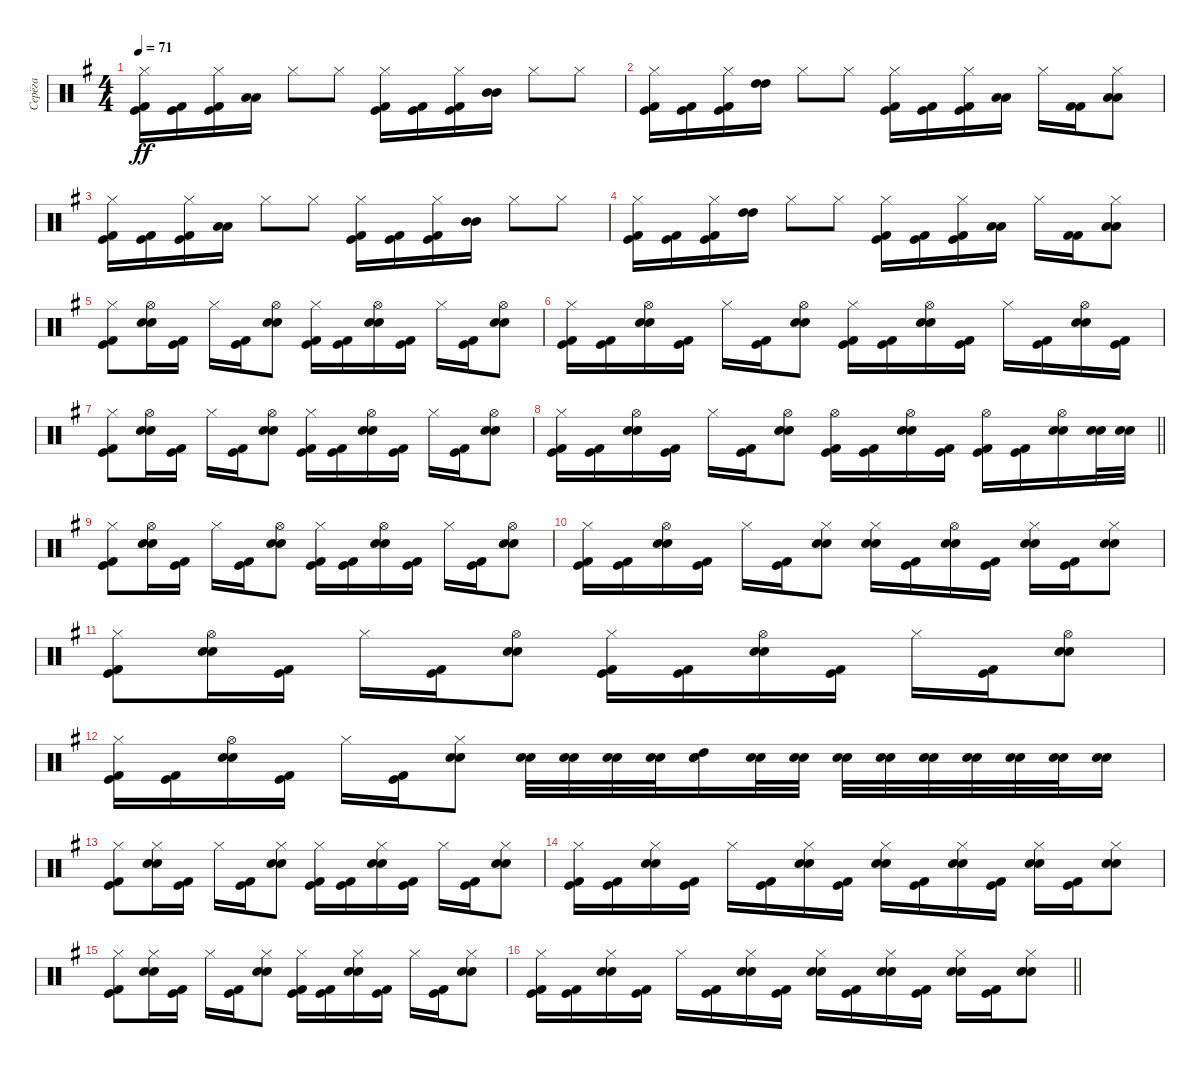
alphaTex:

\track ("Серёга" "Серёга") {instrument percussion}
\staff {score}
\articulation defaults
\ts (4 4)
\tempo 71
\clef neutral
\ks eminor
("Hi-Hat (closed)" "Kick (hit)" "Kick (hit) 2").16{dy ff} ("Kick (hit)" "Kick (hit) 2").16 ("Hi-Hat (closed)" "Kick (hit)" "Kick (hit) 2").16 ("Low Tom (hit)" "Low Tom (hit)").16 "Hi-Hat (closed)".8 "Hi-Hat (closed)".8 ("Hi-Hat (closed)" "Kick (hit) 2" "Kick (hit)").16 ("Kick (hit) 2" "Kick (hit)").16 ("Hi-Hat (closed)" "Kick (hit) 2" "Kick (hit)").16 ("Mid Tom (hit)" "Mid Tom (hit)").16 "Hi-Hat (closed)".8 "Hi-Hat (closed)".8 |
("Hi-Hat (closed)" "Kick (hit) 2" "Kick (hit)").16 ("Kick (hit) 2" "Kick (hit)").16 ("Hi-Hat (closed)" "Kick (hit) 2" "Kick (hit)").16 ("High Tom (hit)" "High Tom (hit)").16 "Hi-Hat (closed)".8 "Hi-Hat (closed)".8 ("Hi-Hat (closed)" "Kick (hit) 2" "Kick (hit)").16 ("Kick (hit) 2" "Kick (hit)").16 ("Hi-Hat (closed)" "Kick (hit) 2" "Kick (hit)").16 ("Low Tom (hit)" "Low Tom (hit)").16 "Hi-Hat (closed)".16 ("Kick (hit) 2" "Kick (hit) 2").16 ("Hi-Hat (closed)" "Low Tom (hit)" "Low Tom (hit)").8 |
("Hi-Hat (closed)" "Kick (hit)" "Kick (hit) 2").16 ("Kick (hit)" "Kick (hit) 2").16 ("Hi-Hat (closed)" "Kick (hit)" "Kick (hit) 2").16 ("Low Tom (hit)" "Low Tom (hit)").16 "Hi-Hat (closed)".8 "Hi-Hat (closed)".8 ("Hi-Hat (closed)" "Kick (hit) 2" "Kick (hit)").16 ("Kick (hit) 2" "Kick (hit)").16 ("Hi-Hat (closed)" "Kick (hit) 2" "Kick (hit)").16 ("Mid Tom (hit)" "Mid Tom (hit)").16 "Hi-Hat (closed)".8 "Hi-Hat (closed)".8 |
("Hi-Hat (closed)" "Kick (hit) 2" "Kick (hit)").16 ("Kick (hit) 2" "Kick (hit)").16 ("Hi-Hat (closed)" "Kick (hit) 2" "Kick (hit)").16 ("High Tom (hit)" "High Tom (hit)").16 "Hi-Hat (closed)".8 "Hi-Hat (closed)".8 ("Hi-Hat (closed)" "Kick (hit) 2" "Kick (hit)").16 ("Kick (hit) 2" "Kick (hit)").16 ("Hi-Hat (closed)" "Kick (hit) 2" "Kick (hit)").16 ("Low Tom (hit)" "Low Tom (hit)").16 "Hi-Hat (closed)".16 ("Kick (hit) 2" "Kick (hit) 2").16 ("Hi-Hat (closed)" "Low Tom (hit)" "Low Tom (hit)").8 |
("Hi-Hat (closed)" "Kick (hit)" "Kick (hit) 2").8 ("Hi-Hat (open)" "Electric Snare (hit)" "Snare (hit) 2").16 ("Kick (hit)" "Kick (hit) 2").16 "Hi-Hat (closed)".16 ("Kick (hit)" "Kick (hit) 2").16 ("Hi-Hat (open)" "Snare (hit) 2" "Electric Snare (hit)").8 ("Hi-Hat (closed)" "Kick (hit)" "Kick (hit) 2").16 ("Kick (hit)" "Kick (hit) 2").16 ("Hi-Hat (open)" "Snare (hit) 2" "Electric Snare (hit)").16 ("Kick (hit)" "Kick (hit) 2").16 "Hi-Hat (closed)".16 ("Kick (hit)" "Kick (hit) 2").16 ("Hi-Hat (open)" "Snare (hit) 2" "Electric Snare (hit)").8 |
("Hi-Hat (closed)" "Kick (hit)" "Kick (hit) 2").16 ("Kick (hit)" "Kick (hit) 2").16 ("Hi-Hat (open)" "Snare (hit) 2" "Electric Snare (hit)").16 ("Kick (hit)" "Kick (hit) 2").16 "Hi-Hat (closed)".16 ("Kick (hit)" "Kick (hit) 2").16 ("Hi-Hat (open)" "Snare (hit) 2" "Electric Snare (hit)").8 ("Hi-Hat (closed)" "Kick (hit)" "Kick (hit) 2").16 ("Kick (hit)" "Kick (hit) 2").16 ("Hi-Hat (open)" "Snare (hit) 2" "Electric Snare (hit)").16 ("Kick (hit)" "Kick (hit) 2").16 "Hi-Hat (closed)".16 ("Kick (hit)" "Kick (hit) 2").16 ("Hi-Hat (open)" "Snare (hit) 2" "Electric Snare (hit)").16 ("Kick (hit)" "Kick (hit) 2").16 |
("Hi-Hat (closed)" "Kick (hit)" "Kick (hit) 2").8 ("Hi-Hat (open)" "Snare (hit) 2" "Electric Snare (hit)").16 ("Kick (hit)" "Kick (hit) 2").16 "Hi-Hat (closed)".16 ("Kick (hit)" "Kick (hit) 2").16 ("Hi-Hat (open)" "Snare (hit) 2" "Electric Snare (hit)").8 ("Hi-Hat (closed)" "Kick (hit)" "Kick (hit) 2").16 ("Kick (hit)" "Kick (hit) 2").16 ("Hi-Hat (open)" "Snare (hit) 2" "Electric Snare (hit)").16 ("Kick (hit)" "Kick (hit) 2").16 "Hi-Hat (closed)".16 ("Kick (hit)" "Kick (hit) 2").16 ("Hi-Hat (open)" "Snare (hit) 2" "Electric Snare (hit)").8 |
\barLineRight lightlight
("Hi-Hat (closed)" "Kick (hit)" "Kick (hit) 2").16 ("Kick (hit)" "Kick (hit) 2").16 ("Hi-Hat (open)" "Snare (hit) 2" "Electric Snare (hit)").16 ("Kick (hit)" "Kick (hit) 2").16 "Hi-Hat (closed)".16 ("Kick (hit)" "Kick (hit) 2").16 ("Hi-Hat (open)" "Snare (hit) 2" "Electric Snare (hit)").8 ("Hi-Hat (open)" "Kick (hit)" "Kick (hit) 2").16 ("Kick (hit)" "Kick (hit) 2").16 ("Hi-Hat (open)" "Snare (hit) 2" "Electric Snare (hit)").16 ("Kick (hit)" "Kick (hit) 2").16 ("Hi-Hat (open)" "Kick (hit)" "Kick (hit) 2").16 ("Kick (hit)" "Kick (hit) 2").16 ("Hi-Hat (open)" "Electric Snare (hit)" "Snare (hit) 2").16 ("Electric Snare (hit)" "Snare (hit) 2").32 ("Electric Snare (hit)" "Snare (hit) 2").32 |
("Hi-Hat (closed)" "Kick (hit)" "Kick (hit) 2").8 ("Hi-Hat (open)" "Snare (hit) 2" "Electric Snare (hit)").16 ("Kick (hit)" "Kick (hit) 2").16 "Hi-Hat (closed)".16 ("Kick (hit)" "Kick (hit) 2").16 ("Hi-Hat (open)" "Snare (hit) 2" "Electric Snare (hit)").8 ("Hi-Hat (closed)" "Kick (hit)" "Kick (hit) 2").16 ("Kick (hit)" "Kick (hit) 2").16 ("Hi-Hat (open)" "Snare (hit) 2" "Electric Snare (hit)").16 ("Kick (hit)" "Kick (hit) 2").16 "Hi-Hat (closed)".16 ("Kick (hit)" "Kick (hit) 2").16 ("Hi-Hat (open)" "Snare (hit) 2" "Electric Snare (hit)").8 |
("Hi-Hat (closed)" "Kick (hit)" "Kick (hit) 2").16 ("Kick (hit)" "Kick (hit) 2").16 ("Hi-Hat (open)" "Snare (hit) 2" "Electric Snare (hit)").16 ("Kick (hit)" "Kick (hit) 2").16 "Hi-Hat (closed)".16 ("Kick (hit)" "Kick (hit) 2").16 ("Hi-Hat (closed)" "Snare (hit) 2" "Electric Snare (hit)").8 ("Hi-Hat (closed)" "Snare (hit) 2" "Electric Snare (hit)").16 ("Kick (hit)" "Kick (hit) 2").16 ("Hi-Hat (open)" "Snare (hit) 2" "Electric Snare (hit)").16 ("Kick (hit)" "Kick (hit) 2").16 ("Hi-Hat (closed)" "Snare (hit) 2" "Electric Snare (hit)").16 ("Kick (hit)" "Kick (hit) 2").16 ("Hi-Hat (closed)" "Snare (hit) 2" "Electric Snare (hit)").8 |
("Hi-Hat (closed)" "Kick (hit)" "Kick (hit) 2").8 ("Hi-Hat (open)" "Electric Snare (hit)" "Snare (hit) 2").16 ("Kick (hit)" "Kick (hit) 2").16 "Hi-Hat (closed)".16 ("Kick (hit)" "Kick (hit) 2").16 ("Hi-Hat (open)" "Electric Snare (hit)" "Snare (hit) 2").8 ("Hi-Hat (closed)" "Kick (hit)" "Kick (hit) 2").16 ("Kick (hit)" "Kick (hit) 2").16 ("Hi-Hat (open)" "Electric Snare (hit)" "Snare (hit) 2").16 ("Kick (hit)" "Kick (hit) 2").16 "Hi-Hat (closed)".16 ("Kick (hit)" "Kick (hit) 2").16 ("Hi-Hat (open)" "Electric Snare (hit)" "Snare (hit) 2").8 |
("Hi-Hat (closed)" "Kick (hit)" "Kick (hit) 2").16 ("Kick (hit)" "Kick (hit) 2").16 ("Hi-Hat (open)" "Electric Snare (hit)" "Snare (hit) 2").16 ("Kick (hit)" "Kick (hit) 2").16 "Hi-Hat (closed)".16 ("Kick (hit)" "Kick (hit) 2").16 ("Hi-Hat (closed)" "Electric Snare (hit)" "Snare (hit) 2").8 ("Snare (hit) 2" "Electric Snare (hit)").32 ("Snare (hit) 2" "Electric Snare (hit)").32 ("Snare (hit) 2" "Electric Snare (hit)").32 ("Snare (hit) 2" "Electric Snare (hit)").32 ("High Tom (hit)" "Snare (hit) 2" "Electric Snare (hit)").16 ("Snare (hit) 2" "Electric Snare (hit)").32 ("Snare (hit) 2" "Electric Snare (hit)").32 ("Snare (hit) 2" "Electric Snare (hit)").32 ("Snare (hit) 2" "Electric Snare (hit)").32 ("Snare (hit) 2" "Electric Snare (hit)").32 ("Snare (hit) 2" "Electric Snare (hit)").32 ("Snare (hit) 2" "Electric Snare (hit)").32 ("Snare (hit) 2" "Electric Snare (hit)").32 ("Snare (hit) 2" "Electric Snare (hit)").16 |
("Hi-Hat (closed)" "Kick (hit)" "Kick (hit) 2").8 ("Hi-Hat (closed)" "Snare (hit) 2" "Electric Snare (hit)").16 ("Kick (hit)" "Kick (hit) 2").16 "Hi-Hat (closed)".16 ("Kick (hit)" "Kick (hit) 2").16 ("Hi-Hat (closed)" "Snare (hit) 2" "Electric Snare (hit)").8 ("Hi-Hat (closed)" "Kick (hit)" "Kick (hit) 2").16 ("Kick (hit)" "Kick (hit) 2").16 ("Hi-Hat (closed)" "Snare (hit) 2" "Electric Snare (hit)").16 ("Kick (hit)" "Kick (hit) 2").16 "Hi-Hat (closed)".16 ("Kick (hit)" "Kick (hit) 2").16 ("Hi-Hat (closed)" "Snare (hit) 2" "Electric Snare (hit)").8 |
("Hi-Hat (closed)" "Kick (hit)" "Kick (hit) 2").16 ("Kick (hit)" "Kick (hit) 2").16 ("Hi-Hat (closed)" "Snare (hit) 2" "Electric Snare (hit)").16 ("Kick (hit)" "Kick (hit) 2").16 "Hi-Hat (closed)".16 ("Kick (hit)" "Kick (hit) 2").16 ("Hi-Hat (closed)" "Snare (hit) 2" "Electric Snare (hit)").16 ("Kick (hit)" "Kick (hit) 2").16 ("Hi-Hat (closed)" "Snare (hit) 2" "Electric Snare (hit)").16 ("Kick (hit)" "Kick (hit) 2").16 ("Hi-Hat (closed)" "Snare (hit) 2" "Electric Snare (hit)").16 ("Kick (hit)" "Kick (hit) 2").16 ("Hi-Hat (closed)" "Snare (hit) 2" "Electric Snare (hit)").16 ("Kick (hit)" "Kick (hit) 2").16 ("Hi-Hat (closed)" "Snare (hit) 2" "Electric Snare (hit)").8 |
("Hi-Hat (closed)" "Kick (hit)" "Kick (hit) 2").8 ("Hi-Hat (closed)" "Snare (hit) 2" "Electric Snare (hit)").16 ("Kick (hit)" "Kick (hit) 2").16 "Hi-Hat (closed)".16 ("Kick (hit)" "Kick (hit) 2").16 ("Hi-Hat (closed)" "Snare (hit) 2" "Electric Snare (hit)").8 ("Hi-Hat (closed)" "Kick (hit)" "Kick (hit) 2").16 ("Kick (hit)" "Kick (hit) 2").16 ("Hi-Hat (closed)" "Snare (hit) 2" "Electric Snare (hit)").16 ("Kick (hit)" "Kick (hit) 2").16 "Hi-Hat (closed)".16 ("Kick (hit)" "Kick (hit) 2").16 ("Hi-Hat (closed)" "Snare (hit) 2" "Electric Snare (hit)").8 |
\barLineRight lightlight
("Hi-Hat (closed)" "Kick (hit)" "Kick (hit) 2").16 ("Kick (hit)" "Kick (hit) 2").16 ("Hi-Hat (closed)" "Snare (hit) 2" "Electric Snare (hit)").16 ("Kick (hit)" "Kick (hit) 2").16 "Hi-Hat (closed)".16 ("Kick (hit)" "Kick (hit) 2").16 ("Hi-Hat (closed)" "Snare (hit) 2" "Electric Snare (hit)").16 ("Kick (hit)" "Kick (hit) 2").16 ("Hi-Hat (closed)" "Snare (hit) 2" "Electric Snare (hit)").16 ("Kick (hit)" "Kick (hit) 2").16 ("Hi-Hat (closed)" "Snare (hit) 2" "Electric Snare (hit)").16 ("Kick (hit)" "Kick (hit) 2").16 ("Hi-Hat (closed)" "Snare (hit) 2" "Electric Snare (hit)").16 ("Kick (hit)" "Kick (hit) 2").16 ("Hi-Hat (closed)" "Snare (hit) 2" "Electric Snare (hit)").8
